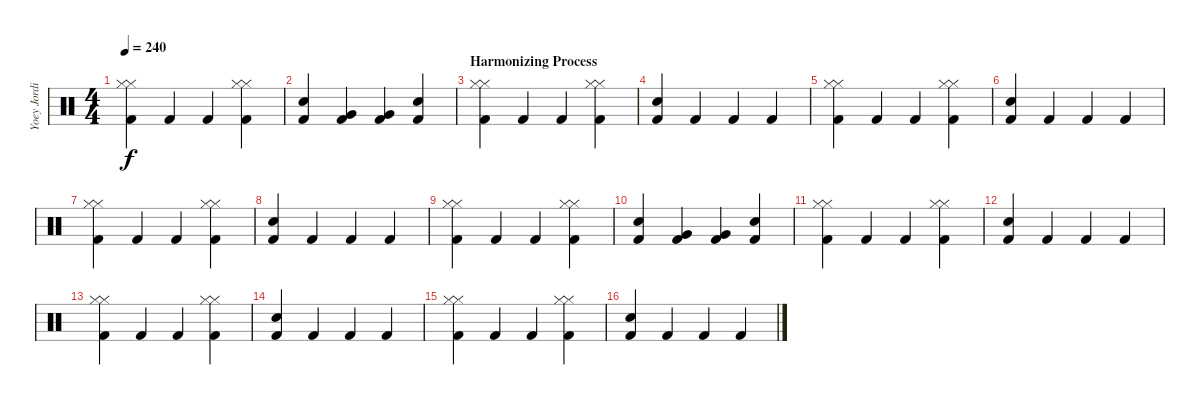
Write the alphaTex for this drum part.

\track ("Yoey Jordison" "Yoey Jordi") {instrument percussion}
\staff {score}
\articulation defaults
\ts (4 4)
\tempo 240
\clef neutral
\ks c
("Kick (hit) 2" "Hi-Hat (closed)" "Hi-Hat (closed)").4{dy f} "Kick (hit) 2".4 "Kick (hit) 2".4 ("Kick (hit) 2" "Hi-Hat (closed)" "Hi-Hat (closed)").4 |
("Kick (hit) 2" "Snare (hit) 2").4 ("Kick (hit) 2" "Very Low Tom (hit)").4 ("Kick (hit) 2" "Very Low Tom (hit)").4 ("Kick (hit) 2" "Snare (hit) 2").4 |
\section ("" "Harmonizing Process")
("Kick (hit) 2" "Hi-Hat (closed)" "Hi-Hat (closed)").4 "Kick (hit) 2".4 "Kick (hit) 2".4 ("Kick (hit) 2" "Hi-Hat (closed)" "Hi-Hat (closed)").4 |
("Kick (hit) 2" "Snare (hit) 2").4 "Kick (hit) 2".4 "Kick (hit) 2".4 "Kick (hit) 2".4 |
("Kick (hit) 2" "Hi-Hat (closed)" "Hi-Hat (closed)").4 "Kick (hit) 2".4 "Kick (hit) 2".4 ("Kick (hit) 2" "Hi-Hat (closed)" "Hi-Hat (closed)").4 |
("Kick (hit) 2" "Snare (hit) 2").4 "Kick (hit) 2".4 "Kick (hit) 2".4 "Kick (hit) 2".4 |
("Kick (hit) 2" "Hi-Hat (closed)" "Hi-Hat (closed)").4 "Kick (hit) 2".4 "Kick (hit) 2".4 ("Kick (hit) 2" "Hi-Hat (closed)" "Hi-Hat (closed)").4 |
("Kick (hit) 2" "Snare (hit) 2").4 "Kick (hit) 2".4 "Kick (hit) 2".4 "Kick (hit) 2".4 |
("Kick (hit) 2" "Hi-Hat (closed)" "Hi-Hat (closed)").4 "Kick (hit) 2".4 "Kick (hit) 2".4 ("Kick (hit) 2" "Hi-Hat (closed)" "Hi-Hat (closed)").4 |
("Kick (hit) 2" "Snare (hit) 2").4 ("Kick (hit) 2" "Very Low Tom (hit)").4 ("Kick (hit) 2" "Very Low Tom (hit)").4 ("Kick (hit) 2" "Snare (hit) 2").4 |
("Kick (hit) 2" "Hi-Hat (closed)" "Hi-Hat (closed)").4 "Kick (hit) 2".4 "Kick (hit) 2".4 ("Kick (hit) 2" "Hi-Hat (closed)" "Hi-Hat (closed)").4 |
("Kick (hit) 2" "Snare (hit) 2").4 "Kick (hit) 2".4 "Kick (hit) 2".4 "Kick (hit) 2".4 |
("Kick (hit) 2" "Hi-Hat (closed)" "Hi-Hat (closed)").4 "Kick (hit) 2".4 "Kick (hit) 2".4 ("Kick (hit) 2" "Hi-Hat (closed)" "Hi-Hat (closed)").4 |
("Kick (hit) 2" "Snare (hit) 2").4 "Kick (hit) 2".4 "Kick (hit) 2".4 "Kick (hit) 2".4 |
("Kick (hit) 2" "Hi-Hat (closed)" "Hi-Hat (closed)").4 "Kick (hit) 2".4 "Kick (hit) 2".4 ("Kick (hit) 2" "Hi-Hat (closed)" "Hi-Hat (closed)").4 |
("Kick (hit) 2" "Snare (hit) 2").4 "Kick (hit) 2".4 "Kick (hit) 2".4 "Kick (hit) 2".4
